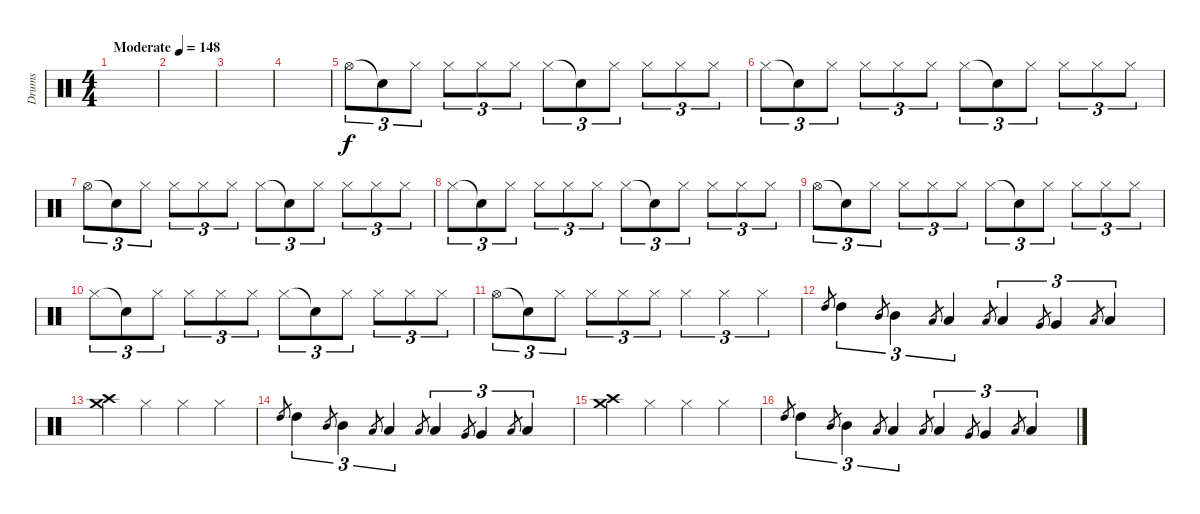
\track ("Drums" "Drums") {instrument percussion}
\staff {score}
\articulation defaults
\ts (4 4)
\tempo (148 "Moderate")
\clef neutral
\ks c
|
|
|
|
"Hi-Hat (open)".8{tu (3 2)} "Snare (hit)"{t}.8{tu (3 2)} "Hi-Hat (closed)".8{tu (3 2)} "Hi-Hat (closed)".8{tu (3 2)} "Hi-Hat (closed)".8{tu (3 2)} "Hi-Hat (closed)".8{tu (3 2)} "Hi-Hat (closed)".8{tu (3 2)} "Snare (hit)"{t}.8{tu (3 2)} "Hi-Hat (closed)".8{tu (3 2)} "Hi-Hat (closed)".8{tu (3 2)} "Hi-Hat (closed)".8{tu (3 2)} "Hi-Hat (closed)".8{tu (3 2)} |
"Hi-Hat (closed)".8{tu (3 2)} "Snare (hit)"{t}.8{tu (3 2)} "Hi-Hat (closed)".8{tu (3 2)} "Hi-Hat (closed)".8{tu (3 2)} "Hi-Hat (closed)".8{tu (3 2)} "Hi-Hat (closed)".8{tu (3 2)} "Hi-Hat (closed)".8{tu (3 2)} "Snare (hit)"{t}.8{tu (3 2)} "Hi-Hat (closed)".8{tu (3 2)} "Hi-Hat (closed)".8{tu (3 2)} "Hi-Hat (closed)".8{tu (3 2)} "Hi-Hat (closed)".8{tu (3 2)} |
"Hi-Hat (open)".8{tu (3 2)} "Snare (hit)"{t}.8{tu (3 2)} "Hi-Hat (closed)".8{tu (3 2)} "Hi-Hat (closed)".8{tu (3 2)} "Hi-Hat (closed)".8{tu (3 2)} "Hi-Hat (closed)".8{tu (3 2)} "Hi-Hat (closed)".8{tu (3 2)} "Snare (hit)"{t}.8{tu (3 2)} "Hi-Hat (closed)".8{tu (3 2)} "Hi-Hat (closed)".8{tu (3 2)} "Hi-Hat (closed)".8{tu (3 2)} "Hi-Hat (closed)".8{tu (3 2)} |
"Hi-Hat (closed)".8{tu (3 2)} "Snare (hit)"{t}.8{tu (3 2)} "Hi-Hat (closed)".8{tu (3 2)} "Hi-Hat (closed)".8{tu (3 2)} "Hi-Hat (closed)".8{tu (3 2)} "Hi-Hat (closed)".8{tu (3 2)} "Hi-Hat (closed)".8{tu (3 2)} "Snare (hit)"{t}.8{tu (3 2)} "Hi-Hat (closed)".8{tu (3 2)} "Hi-Hat (closed)".8{tu (3 2)} "Hi-Hat (closed)".8{tu (3 2)} "Hi-Hat (closed)".8{tu (3 2)} |
"Hi-Hat (open)".8{tu (3 2)} "Snare (hit)"{t}.8{tu (3 2)} "Hi-Hat (closed)".8{tu (3 2)} "Hi-Hat (closed)".8{tu (3 2)} "Hi-Hat (closed)".8{tu (3 2)} "Hi-Hat (closed)".8{tu (3 2)} "Hi-Hat (closed)".8{tu (3 2)} "Snare (hit)"{t}.8{tu (3 2)} "Hi-Hat (closed)".8{tu (3 2)} "Hi-Hat (closed)".8{tu (3 2)} "Hi-Hat (closed)".8{tu (3 2)} "Hi-Hat (closed)".8{tu (3 2)} |
"Hi-Hat (closed)".8{tu (3 2)} "Snare (hit)"{t}.8{tu (3 2)} "Hi-Hat (closed)".8{tu (3 2)} "Hi-Hat (closed)".8{tu (3 2)} "Hi-Hat (closed)".8{tu (3 2)} "Hi-Hat (closed)".8{tu (3 2)} "Hi-Hat (closed)".8{tu (3 2)} "Snare (hit)"{t}.8{tu (3 2)} "Hi-Hat (closed)".8{tu (3 2)} "Hi-Hat (closed)".8{tu (3 2)} "Hi-Hat (closed)".8{tu (3 2)} "Hi-Hat (closed)".8{tu (3 2)} |
"Hi-Hat (open)".8{tu (3 2)} "Snare (hit)"{t}.8{tu (3 2)} "Hi-Hat (closed)".8{tu (3 2)} "Hi-Hat (closed)".8{tu (3 2)} "Hi-Hat (closed)".8{tu (3 2)} "Hi-Hat (closed)".8{tu (3 2)} "Hi-Hat (closed)".4{tu (3 2)} "Hi-Hat (closed)".4{tu (3 2)} "Hi-Hat (closed)".4{tu (3 2)} |
"High Tom (hit)".8{gr} "High Tom (hit)".4{tu (3 2)} "Mid Tom (hit)".8{gr} "Mid Tom (hit)".4{tu (3 2)} "Low Tom (hit)".8{gr} "Low Tom (hit)".4{tu (3 2)} "Low Tom (hit)".8{gr} "Low Tom (hit)".4{tu (3 2)} "Very Low Tom (hit)".8{gr} "Very Low Tom (hit)".4{tu (3 2)} "Low Floor Tom (hit)".8{gr} "Low Floor Tom (hit)".4{tu (3 2)} |
("Crash medium (hit)" "Crash high (hit)").4 "Hi-Hat (closed)".4 "Hi-Hat (closed)".4 "Hi-Hat (closed)".4 |
"High Tom (hit)".8{gr} "High Tom (hit)".4{tu (3 2)} "Mid Tom (hit)".8{gr} "Mid Tom (hit)".4{tu (3 2)} "Low Tom (hit)".8{gr} "Low Tom (hit)".4{tu (3 2)} "Low Tom (hit)".8{gr} "Low Tom (hit)".4{tu (3 2)} "Very Low Tom (hit)".8{gr} "Very Low Tom (hit)".4{tu (3 2)} "Low Floor Tom (hit)".8{gr} "Low Floor Tom (hit)".4{tu (3 2)} |
("Crash medium (hit)" "Crash high (hit)").4 "Hi-Hat (closed)".4 "Hi-Hat (closed)".4 "Hi-Hat (closed)".4 |
"High Tom (hit)".8{gr} "High Tom (hit)".4{tu (3 2)} "Mid Tom (hit)".8{gr} "Mid Tom (hit)".4{tu (3 2)} "Low Tom (hit)".8{gr} "Low Tom (hit)".4{tu (3 2)} "Low Tom (hit)".8{gr} "Low Tom (hit)".4{tu (3 2)} "Very Low Tom (hit)".8{gr} "Very Low Tom (hit)".4{tu (3 2)} "Low Floor Tom (hit)".8{gr} "Low Floor Tom (hit)".4{tu (3 2)}
